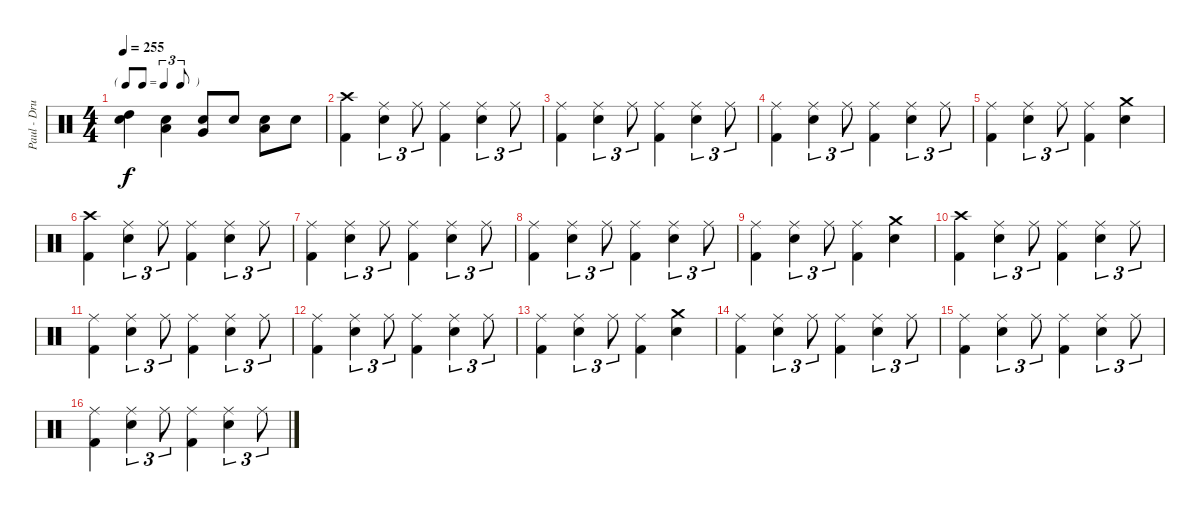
\track ("Paul - Drums" "Paul - Dru") {instrument percussion}
\staff {score}
\articulation defaults
\ts (4 4)
\tf triplet8th
\tempo 255
\clef neutral
\ks c
("High Tom (hit)" "Electric Snare (hit)").4{dy f} ("Low Tom (hit)" "Electric Snare (hit)").4 ("Very Low Tom (hit)" "Electric Snare (hit)").8 "Electric Snare (hit)".8 ("Low Floor Tom (hit)" "Electric Snare (hit)").8 "Electric Snare (hit)".8 |
("Crash high (hit)" "Kick (hit) 2").4 ("Ride (middle)" "Electric Snare (hit)").4{tu (3 2)} "Ride (middle)".8{tu (3 2)} ("Ride (middle)" "Kick (hit) 2").4 ("Ride (middle)" "Electric Snare (hit)").4{tu (3 2)} "Ride (middle)".8{tu (3 2)} |
("Ride (middle)" "Kick (hit) 2").4 ("Ride (middle)" "Electric Snare (hit)").4{tu (3 2)} "Ride (middle)".8{tu (3 2)} ("Ride (middle)" "Kick (hit) 2").4 ("Ride (middle)" "Electric Snare (hit)").4{tu (3 2)} "Ride (middle)".8{tu (3 2)} |
("Ride (middle)" "Kick (hit) 2").4 ("Ride (middle)" "Electric Snare (hit)").4{tu (3 2)} "Ride (middle)".8{tu (3 2)} ("Ride (middle)" "Kick (hit) 2").4 ("Ride (middle)" "Electric Snare (hit)").4{tu (3 2)} "Ride (middle)".8{tu (3 2)} |
("Ride (middle)" "Kick (hit) 2").4 ("Ride (middle)" "Electric Snare (hit)").4{tu (3 2)} "Ride (middle)".8{tu (3 2)} ("Ride (middle)" "Kick (hit) 2").4 ("Crash medium (hit)" "Electric Snare (hit)").4 |
("Crash high (hit)" "Kick (hit) 2").4 ("Ride (middle)" "Electric Snare (hit)").4{tu (3 2)} "Ride (middle)".8{tu (3 2)} ("Ride (middle)" "Kick (hit) 2").4 ("Ride (middle)" "Electric Snare (hit)").4{tu (3 2)} "Ride (middle)".8{tu (3 2)} |
("Ride (middle)" "Kick (hit) 2").4 ("Ride (middle)" "Electric Snare (hit)").4{tu (3 2)} "Ride (middle)".8{tu (3 2)} ("Ride (middle)" "Kick (hit) 2").4 ("Ride (middle)" "Electric Snare (hit)").4{tu (3 2)} "Ride (middle)".8{tu (3 2)} |
("Ride (middle)" "Kick (hit) 2").4 ("Ride (middle)" "Electric Snare (hit)").4{tu (3 2)} "Ride (middle)".8{tu (3 2)} ("Ride (middle)" "Kick (hit) 2").4 ("Ride (middle)" "Electric Snare (hit)").4{tu (3 2)} "Ride (middle)".8{tu (3 2)} |
("Ride (middle)" "Kick (hit) 2").4 ("Ride (middle)" "Electric Snare (hit)").4{tu (3 2)} "Ride (middle)".8{tu (3 2)} ("Ride (middle)" "Kick (hit) 2").4 ("Crash medium (hit)" "Electric Snare (hit)").4 |
("Crash high (hit)" "Kick (hit) 2").4 ("Ride (middle)" "Electric Snare (hit)").4{tu (3 2)} "Ride (middle)".8{tu (3 2)} ("Ride (middle)" "Kick (hit) 2").4 ("Ride (middle)" "Electric Snare (hit)").4{tu (3 2)} "Ride (middle)".8{tu (3 2)} |
("Ride (middle)" "Kick (hit) 2").4 ("Ride (middle)" "Electric Snare (hit)").4{tu (3 2)} "Ride (middle)".8{tu (3 2)} ("Ride (middle)" "Kick (hit) 2").4 ("Ride (middle)" "Electric Snare (hit)").4{tu (3 2)} "Ride (middle)".8{tu (3 2)} |
("Ride (middle)" "Kick (hit) 2").4 ("Ride (middle)" "Electric Snare (hit)").4{tu (3 2)} "Ride (middle)".8{tu (3 2)} ("Ride (middle)" "Kick (hit) 2").4 ("Ride (middle)" "Electric Snare (hit)").4{tu (3 2)} "Ride (middle)".8{tu (3 2)} |
("Ride (middle)" "Kick (hit) 2").4 ("Ride (middle)" "Electric Snare (hit)").4{tu (3 2)} "Ride (middle)".8{tu (3 2)} ("Ride (middle)" "Kick (hit) 2").4 ("Crash medium (hit)" "Electric Snare (hit)").4 |
("Ride (middle)" "Kick (hit) 2").4 ("Ride (middle)" "Electric Snare (hit)").4{tu (3 2)} "Ride (middle)".8{tu (3 2)} ("Ride (middle)" "Kick (hit) 2").4 ("Ride (middle)" "Electric Snare (hit)").4{tu (3 2)} "Ride (middle)".8{tu (3 2)} |
("Ride (middle)" "Kick (hit) 2").4 ("Ride (middle)" "Electric Snare (hit)").4{tu (3 2)} "Ride (middle)".8{tu (3 2)} ("Ride (middle)" "Kick (hit) 2").4 ("Ride (middle)" "Electric Snare (hit)").4{tu (3 2)} "Ride (middle)".8{tu (3 2)} |
("Ride (middle)" "Kick (hit) 2").4 ("Ride (middle)" "Electric Snare (hit)").4{tu (3 2)} "Ride (middle)".8{tu (3 2)} ("Ride (middle)" "Kick (hit) 2").4 ("Ride (middle)" "Electric Snare (hit)").4{tu (3 2)} "Ride (middle)".8{tu (3 2)}
